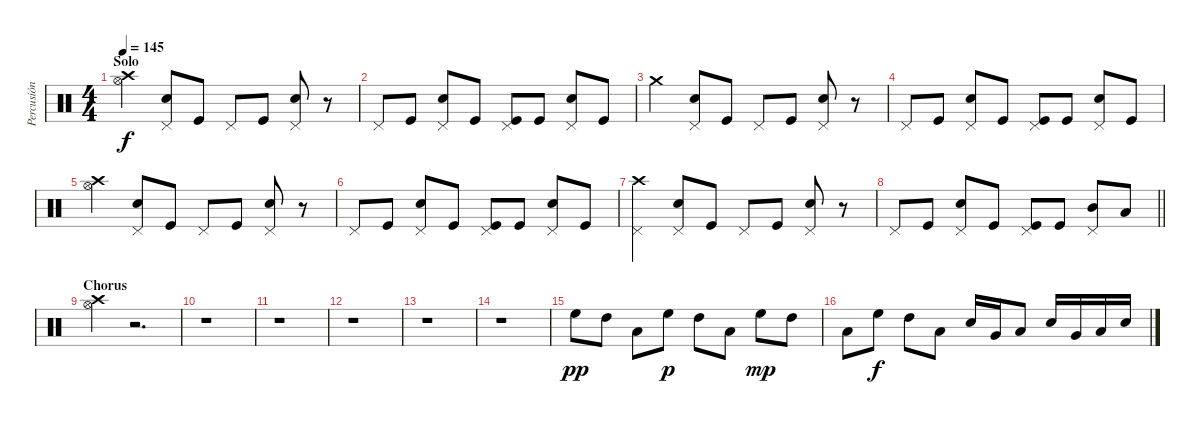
\track ("Percusión" "Percusión") {instrument percussion}
\staff {score}
\articulation defaults
\ts (4 4)
\section ("" "Solo")
\tempo 145
\clef neutral
\ks c
("Crash high (hit)" "Hi-Hat (open)").4{dy f} ("Pedal Hi-Hat (hit)" "Snare (hit) 2").8 "Kick (hit)".8 "Pedal Hi-Hat (hit)".8 "Kick (hit)".8 ("Pedal Hi-Hat (hit)" "Snare (hit) 2").8 r.8 |
"Pedal Hi-Hat (hit)".8 "Kick (hit)".8 ("Pedal Hi-Hat (hit)" "Snare (hit) 2").8 "Kick (hit)".8 ("Pedal Hi-Hat (hit)" "Kick (hit)").8 "Kick (hit)".8 ("Pedal Hi-Hat (hit)" "Snare (hit) 2").8 "Kick (hit)".8 |
"Crash medium (hit)".4 ("Pedal Hi-Hat (hit)" "Snare (hit) 2").8 "Kick (hit)".8 "Pedal Hi-Hat (hit)".8 "Kick (hit)".8 ("Pedal Hi-Hat (hit)" "Snare (hit) 2").8 r.8 |
"Pedal Hi-Hat (hit)".8 "Kick (hit)".8 ("Pedal Hi-Hat (hit)" "Snare (hit) 2").8 "Kick (hit)".8 ("Pedal Hi-Hat (hit)" "Kick (hit)").8 "Kick (hit)".8 ("Pedal Hi-Hat (hit)" "Snare (hit) 2").8 "Kick (hit)".8 |
("Crash high (hit)" "Hi-Hat (open)").4 ("Pedal Hi-Hat (hit)" "Snare (hit) 2").8 "Kick (hit)".8 "Pedal Hi-Hat (hit)".8 "Kick (hit)".8 ("Pedal Hi-Hat (hit)" "Snare (hit) 2").8 r.8 |
"Pedal Hi-Hat (hit)".8 "Kick (hit)".8 ("Pedal Hi-Hat (hit)" "Snare (hit) 2").8 "Kick (hit)".8 ("Pedal Hi-Hat (hit)" "Kick (hit)").8 "Kick (hit)".8 ("Pedal Hi-Hat (hit)" "Snare (hit) 2").8 "Kick (hit)".8 |
("Crash high (hit)" "Pedal Hi-Hat (hit)").4 ("Pedal Hi-Hat (hit)" "Snare (hit) 2").8 "Kick (hit)".8 "Pedal Hi-Hat (hit)".8 "Kick (hit)".8 ("Pedal Hi-Hat (hit)" "Snare (hit) 2").8 r.8 |
\barLineRight lightlight "Pedal Hi-Hat (hit)".8 "Kick (hit)".8
("Pedal Hi-Hat (hit)" "Snare (hit) 2").8 "Kick (hit)".8 ("Pedal Hi-Hat (hit)" "Kick (hit)").8 "Kick (hit)".8 ("Pedal Hi-Hat (hit)" "Mid Tom (hit)").8 "Low Tom (hit)".8 |
\section ("" "Chorus")
("Crash high (hit)" "Hi-Hat (open)").4 r.2{d} |
r.1 |
r.1 |
r.1 |
r.1 |
r.1 |
"High Floor Tom (hit)".8{dy pp} "High Tom (hit)".8 "Low Tom (hit)".8 "High Floor Tom (hit)".8{dy p} "High Tom (hit)".8 "Low Tom (hit)".8 "High Floor Tom (hit)".8{dy mp} "High Tom (hit)".8 |
"Low Tom (hit)".8 "High Floor Tom (hit)".8{dy f} "High Tom (hit)".8 "Low Tom (hit)".8 "Snare (hit) 2".16 "Very Low Tom (hit)".16 "Low Floor Tom (hit)".8 "Snare (hit) 2".16 "Very Low Tom (hit)".16 "Low Floor Tom (hit)".16 "Snare (hit) 2".16
